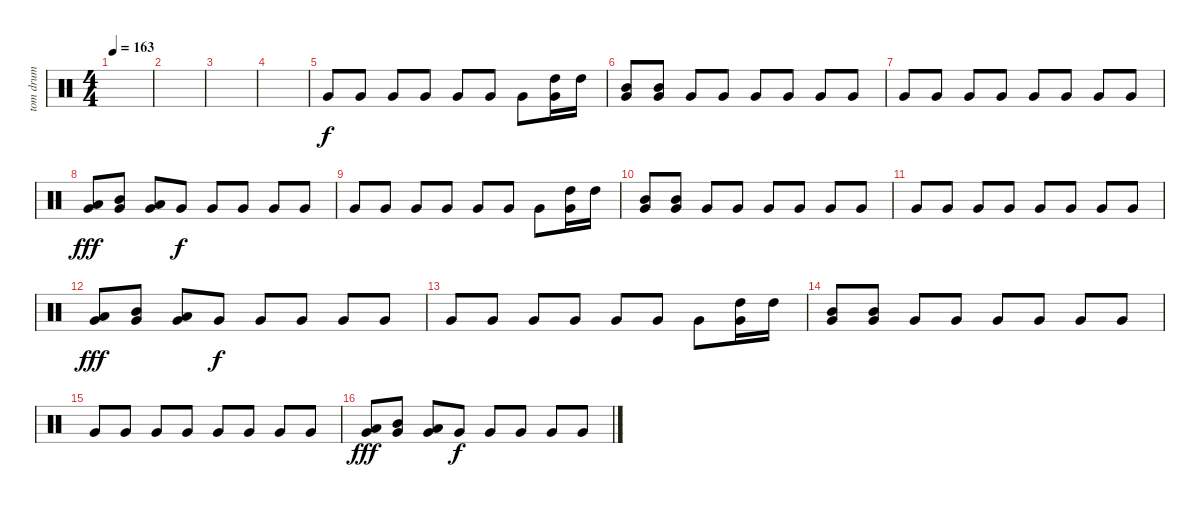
\track ("tom drum" "tom drum") {instrument percussion}
\staff {score}
\articulation defaults
\ts (4 4)
\tempo 163
\clef neutral
\ks c
|
|
|
|
"Very Low Tom (hit)".8 "Very Low Tom (hit)".8 "Very Low Tom (hit)".8 "Very Low Tom (hit)".8 "Very Low Tom (hit)".8 "Very Low Tom (hit)".8 "Very Low Tom (hit)".8 ("Very Low Tom (hit)" "High Tom (hit)").16 "High Tom (hit)".16 |
("Very Low Tom (hit)" "Mid Tom (hit)").8 ("Very Low Tom (hit)" "Mid Tom (hit)").8 "Very Low Tom (hit)".8 "Very Low Tom (hit)".8 "Very Low Tom (hit)".8 "Very Low Tom (hit)".8 "Very Low Tom (hit)".8 "Very Low Tom (hit)".8 |
"Very Low Tom (hit)".8 "Very Low Tom (hit)".8 "Very Low Tom (hit)".8 "Very Low Tom (hit)".8 "Very Low Tom (hit)".8 "Very Low Tom (hit)".8 "Very Low Tom (hit)".8 "Very Low Tom (hit)".8 |
("Very Low Tom (hit)" "Low Tom (hit)").8{dy fff} ("Very Low Tom (hit)" "Mid Tom (hit)").8 ("Very Low Tom (hit)" "Low Tom (hit)").8 "Very Low Tom (hit)".8{dy f} "Very Low Tom (hit)".8 "Very Low Tom (hit)".8 "Very Low Tom (hit)".8 "Very Low Tom (hit)".8 |
"Very Low Tom (hit)".8 "Very Low Tom (hit)".8 "Very Low Tom (hit)".8 "Very Low Tom (hit)".8 "Very Low Tom (hit)".8 "Very Low Tom (hit)".8 "Very Low Tom (hit)".8 ("Very Low Tom (hit)" "High Tom (hit)").16 "High Tom (hit)".16 |
("Very Low Tom (hit)" "Mid Tom (hit)").8 ("Very Low Tom (hit)" "Mid Tom (hit)").8 "Very Low Tom (hit)".8 "Very Low Tom (hit)".8 "Very Low Tom (hit)".8 "Very Low Tom (hit)".8 "Very Low Tom (hit)".8 "Very Low Tom (hit)".8 |
"Very Low Tom (hit)".8 "Very Low Tom (hit)".8 "Very Low Tom (hit)".8 "Very Low Tom (hit)".8 "Very Low Tom (hit)".8 "Very Low Tom (hit)".8 "Very Low Tom (hit)".8 "Very Low Tom (hit)".8 |
("Very Low Tom (hit)" "Low Tom (hit)").8{dy fff} ("Very Low Tom (hit)" "Mid Tom (hit)").8 ("Very Low Tom (hit)" "Low Tom (hit)").8 "Very Low Tom (hit)".8{dy f} "Very Low Tom (hit)".8 "Very Low Tom (hit)".8 "Very Low Tom (hit)".8 "Very Low Tom (hit)".8 |
"Very Low Tom (hit)".8 "Very Low Tom (hit)".8 "Very Low Tom (hit)".8 "Very Low Tom (hit)".8 "Very Low Tom (hit)".8 "Very Low Tom (hit)".8 "Very Low Tom (hit)".8 ("Very Low Tom (hit)" "High Tom (hit)").16 "High Tom (hit)".16 |
("Very Low Tom (hit)" "Mid Tom (hit)").8 ("Very Low Tom (hit)" "Mid Tom (hit)").8 "Very Low Tom (hit)".8 "Very Low Tom (hit)".8 "Very Low Tom (hit)".8 "Very Low Tom (hit)".8 "Very Low Tom (hit)".8 "Very Low Tom (hit)".8 |
"Very Low Tom (hit)".8 "Very Low Tom (hit)".8 "Very Low Tom (hit)".8 "Very Low Tom (hit)".8 "Very Low Tom (hit)".8 "Very Low Tom (hit)".8 "Very Low Tom (hit)".8 "Very Low Tom (hit)".8 |
("Very Low Tom (hit)" "Low Tom (hit)").8{dy fff} ("Very Low Tom (hit)" "Mid Tom (hit)").8 ("Very Low Tom (hit)" "Low Tom (hit)").8 "Very Low Tom (hit)".8{dy f} "Very Low Tom (hit)".8 "Very Low Tom (hit)".8 "Very Low Tom (hit)".8 "Very Low Tom (hit)".8
